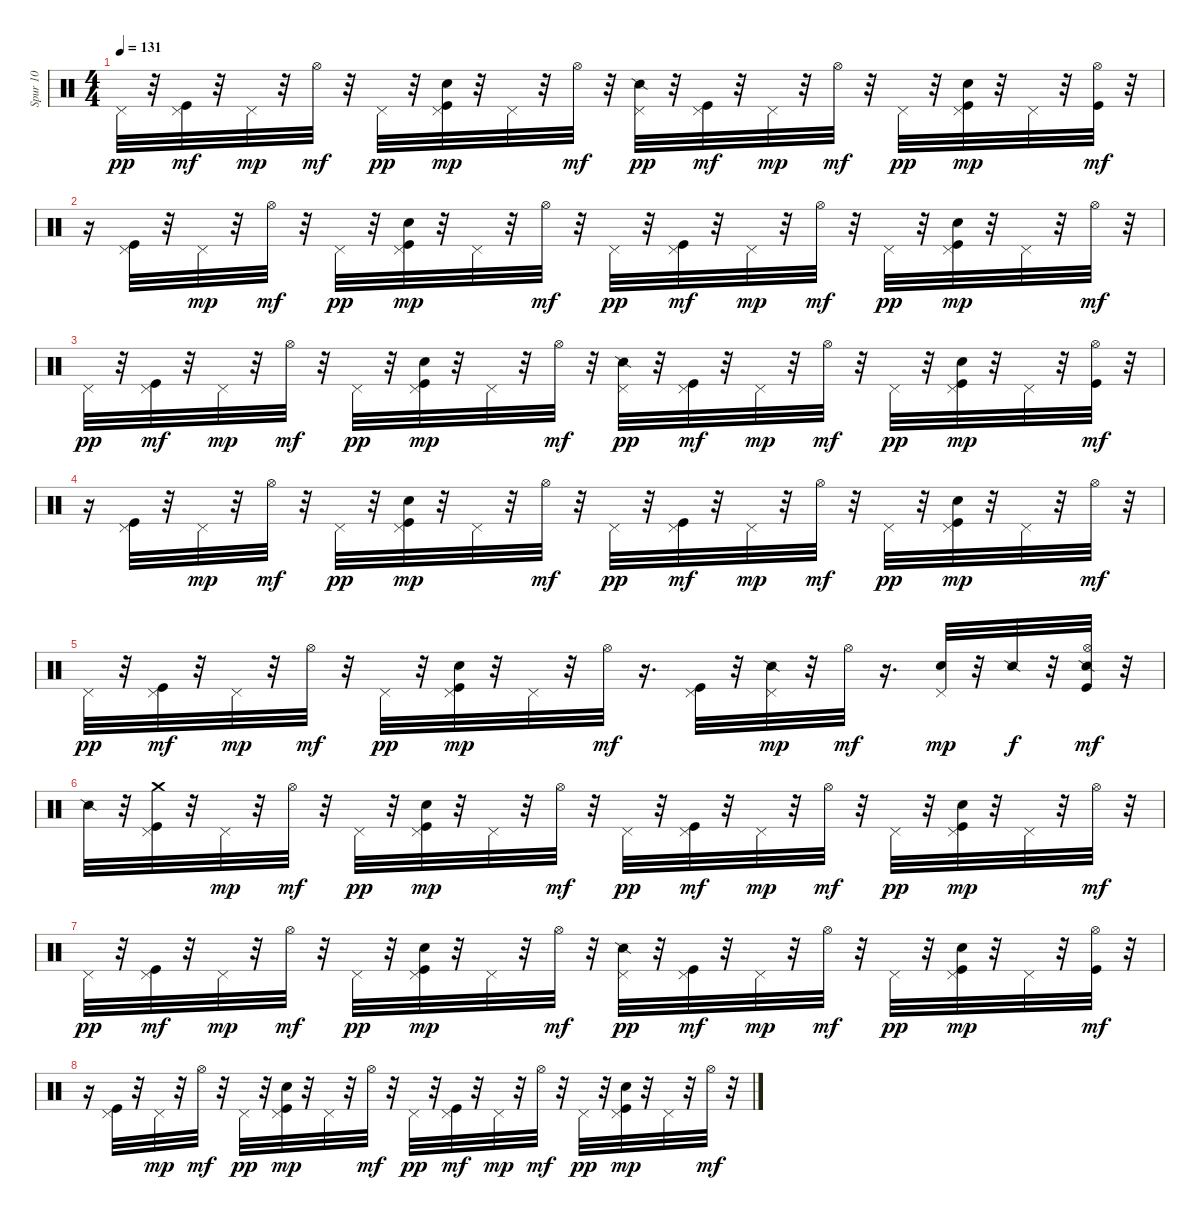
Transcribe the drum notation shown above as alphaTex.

\track ("Spur 10" "Spur 10") {instrument percussion}
\staff {score}
\articulation defaults
\ts (4 4)
\tempo 131
\clef neutral
\ks c "Pedal Hi-Hat (hit)".32{dy pp}
r.32 ("Kick (hit)" "Pedal Hi-Hat (hit)").32{dy mf} r.32 "Pedal Hi-Hat (hit)".32{dy mp} r.32 "Hi-Hat (open)".32{dy mf} r.32 "Pedal Hi-Hat (hit)".32{dy pp} r.32 ("Kick (hit)" "Hand Clap (hit)" "Pedal Hi-Hat (hit)").32{dy mp} r.32 "Pedal Hi-Hat (hit)".32 r.32 "Hi-Hat (open)".32{dy mf} r.32 ("Pedal Hi-Hat (hit)" "Snare (side stick) 2").32{dy pp} r.32 ("Kick (hit)" "Pedal Hi-Hat (hit)").32{dy mf} r.32 "Pedal Hi-Hat (hit)".32{dy mp} r.32 "Hi-Hat (open)".32{dy mf} r.32 "Pedal Hi-Hat (hit)".32{dy pp} r.32 ("Kick (hit)" "Hand Clap (hit)" "Pedal Hi-Hat (hit)").32{dy mp} r.32 "Pedal Hi-Hat (hit)".32 r.32 ("Kick (hit)" "Hi-Hat (open)").32{dy mf} r.32 |
r.16 ("Kick (hit)" "Pedal Hi-Hat (hit)").32 r.32 "Pedal Hi-Hat (hit)".32{dy mp} r.32 "Hi-Hat (open)".32{dy mf} r.32 "Pedal Hi-Hat (hit)".32{dy pp} r.32 ("Kick (hit)" "Hand Clap (hit)" "Pedal Hi-Hat (hit)").32{dy mp} r.32 "Pedal Hi-Hat (hit)".32 r.32 "Hi-Hat (open)".32{dy mf} r.32 "Pedal Hi-Hat (hit)".32{dy pp} r.32 ("Kick (hit)" "Pedal Hi-Hat (hit)").32{dy mf} r.32 "Pedal Hi-Hat (hit)".32{dy mp} r.32 "Hi-Hat (open)".32{dy mf} r.32 "Pedal Hi-Hat (hit)".32{dy pp} r.32 ("Kick (hit)" "Hand Clap (hit)" "Pedal Hi-Hat (hit)").32{dy mp} r.32 "Pedal Hi-Hat (hit)".32 r.32 "Hi-Hat (open)".32{dy mf} r.32 |
"Pedal Hi-Hat (hit)".32{dy pp} r.32 ("Kick (hit)" "Pedal Hi-Hat (hit)").32{dy mf} r.32 "Pedal Hi-Hat (hit)".32{dy mp} r.32 "Hi-Hat (open)".32{dy mf} r.32 "Pedal Hi-Hat (hit)".32{dy pp} r.32 ("Kick (hit)" "Hand Clap (hit)" "Pedal Hi-Hat (hit)").32{dy mp} r.32 "Pedal Hi-Hat (hit)".32 r.32 "Hi-Hat (open)".32{dy mf} r.32 ("Pedal Hi-Hat (hit)" "Snare (side stick) 2").32{dy pp} r.32 ("Kick (hit)" "Pedal Hi-Hat (hit)").32{dy mf} r.32 "Pedal Hi-Hat (hit)".32{dy mp} r.32 "Hi-Hat (open)".32{dy mf} r.32 "Pedal Hi-Hat (hit)".32{dy pp} r.32 ("Kick (hit)" "Hand Clap (hit)" "Pedal Hi-Hat (hit)").32{dy mp} r.32 "Pedal Hi-Hat (hit)".32 r.32 ("Kick (hit)" "Hi-Hat (open)").32{dy mf} r.32 |
r.16 ("Kick (hit)" "Pedal Hi-Hat (hit)").32 r.32 "Pedal Hi-Hat (hit)".32{dy mp} r.32 "Hi-Hat (open)".32{dy mf} r.32 "Pedal Hi-Hat (hit)".32{dy pp} r.32 ("Kick (hit)" "Hand Clap (hit)" "Pedal Hi-Hat (hit)").32{dy mp} r.32 "Pedal Hi-Hat (hit)".32 r.32 "Hi-Hat (open)".32{dy mf} r.32 "Pedal Hi-Hat (hit)".32{dy pp} r.32 ("Kick (hit)" "Pedal Hi-Hat (hit)").32{dy mf} r.32 "Pedal Hi-Hat (hit)".32{dy mp} r.32 "Hi-Hat (open)".32{dy mf} r.32 "Pedal Hi-Hat (hit)".32{dy pp} r.32 ("Kick (hit)" "Hand Clap (hit)" "Pedal Hi-Hat (hit)").32{dy mp} r.32 "Pedal Hi-Hat (hit)".32 r.32 "Hi-Hat (open)".32{dy mf} r.32 |
"Pedal Hi-Hat (hit)".32{dy pp} r.32 ("Kick (hit)" "Pedal Hi-Hat (hit)").32{dy mf} r.32 "Pedal Hi-Hat (hit)".32{dy mp} r.32 "Hi-Hat (open)".32{dy mf} r.32 "Pedal Hi-Hat (hit)".32{dy pp} r.32 ("Kick (hit)" "Hand Clap (hit)" "Pedal Hi-Hat (hit)").32{dy mp} r.32 "Pedal Hi-Hat (hit)".32 r.32 "Hi-Hat (open)".32{dy mf} r.16{d} ("Kick (hit)" "Pedal Hi-Hat (hit)").32 r.32 ("Snare (side stick) 2" "Pedal Hi-Hat (hit)").32{dy mp} r.32 "Hi-Hat (open)".32{dy mf} r.16{d} ("Hand Clap (hit)" "Pedal Hi-Hat (hit)").32{dy mp} r.32 "Snare (side stick) 2".32{dy f} r.32 ("Snare (side stick) 2" "Kick (hit)" "Hi-Hat (open)").32{dy mf} r.32 |
"Snare (side stick) 2".32 r.32 ("Crash medium (hit)" "Kick (hit)" "Pedal Hi-Hat (hit)").32 r.32 "Pedal Hi-Hat (hit)".32{dy mp} r.32 "Hi-Hat (open)".32{dy mf} r.32 "Pedal Hi-Hat (hit)".32{dy pp} r.32 ("Kick (hit)" "Hand Clap (hit)" "Pedal Hi-Hat (hit)").32{dy mp} r.32 "Pedal Hi-Hat (hit)".32 r.32 "Hi-Hat (open)".32{dy mf} r.32 "Pedal Hi-Hat (hit)".32{dy pp} r.32 ("Kick (hit)" "Pedal Hi-Hat (hit)").32{dy mf} r.32 "Pedal Hi-Hat (hit)".32{dy mp} r.32 "Hi-Hat (open)".32{dy mf} r.32 "Pedal Hi-Hat (hit)".32{dy pp} r.32 ("Kick (hit)" "Hand Clap (hit)" "Pedal Hi-Hat (hit)").32{dy mp} r.32 "Pedal Hi-Hat (hit)".32 r.32 "Hi-Hat (open)".32{dy mf} r.32 |
"Pedal Hi-Hat (hit)".32{dy pp} r.32 ("Kick (hit)" "Pedal Hi-Hat (hit)").32{dy mf} r.32 "Pedal Hi-Hat (hit)".32{dy mp} r.32 "Hi-Hat (open)".32{dy mf} r.32 "Pedal Hi-Hat (hit)".32{dy pp} r.32 ("Kick (hit)" "Hand Clap (hit)" "Pedal Hi-Hat (hit)").32{dy mp} r.32 "Pedal Hi-Hat (hit)".32 r.32 "Hi-Hat (open)".32{dy mf} r.32 ("Pedal Hi-Hat (hit)" "Snare (side stick) 2").32{dy pp} r.32 ("Kick (hit)" "Pedal Hi-Hat (hit)").32{dy mf} r.32 "Pedal Hi-Hat (hit)".32{dy mp} r.32 "Hi-Hat (open)".32{dy mf} r.32 "Pedal Hi-Hat (hit)".32{dy pp} r.32 ("Kick (hit)" "Hand Clap (hit)" "Pedal Hi-Hat (hit)").32{dy mp} r.32 "Pedal Hi-Hat (hit)".32 r.32 ("Kick (hit)" "Hi-Hat (open)").32{dy mf} r.32 |
r.16 ("Kick (hit)" "Pedal Hi-Hat (hit)").32 r.32 "Pedal Hi-Hat (hit)".32{dy mp} r.32 "Hi-Hat (open)".32{dy mf} r.32 "Pedal Hi-Hat (hit)".32{dy pp} r.32 ("Kick (hit)" "Hand Clap (hit)" "Pedal Hi-Hat (hit)").32{dy mp} r.32 "Pedal Hi-Hat (hit)".32 r.32 "Hi-Hat (open)".32{dy mf} r.32 "Pedal Hi-Hat (hit)".32{dy pp} r.32 ("Kick (hit)" "Pedal Hi-Hat (hit)").32{dy mf} r.32 "Pedal Hi-Hat (hit)".32{dy mp} r.32 "Hi-Hat (open)".32{dy mf} r.32 "Pedal Hi-Hat (hit)".32{dy pp} r.32 ("Kick (hit)" "Hand Clap (hit)" "Pedal Hi-Hat (hit)").32{dy mp} r.32 "Pedal Hi-Hat (hit)".32 r.32 "Hi-Hat (open)".32{dy mf} r.32
